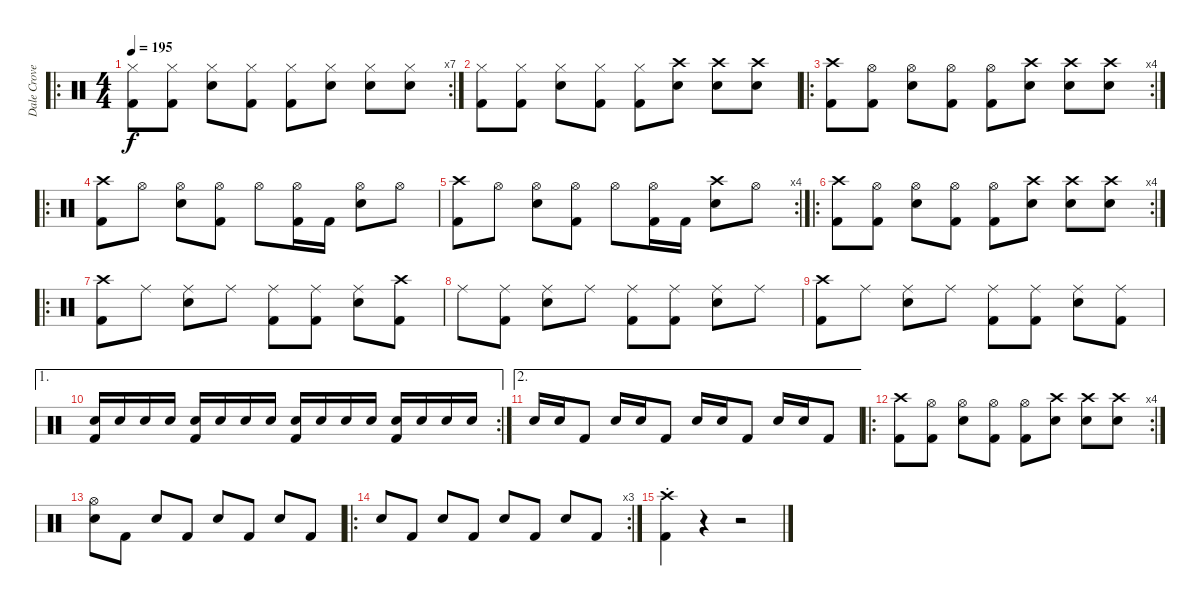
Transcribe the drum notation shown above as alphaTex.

\track ("Dale Crover" "Dale Crove") {instrument percussion}
\staff {score}
\articulation defaults
\ro
\rc 7
\ts (4 4)
\tempo 195
\clef neutral
\ks c
("Hi-Hat (closed)" "Kick (hit) 2").8{dy f} ("Hi-Hat (closed)" "Kick (hit) 2").8 ("Hi-Hat (closed)" "Electric Snare (hit)").8 ("Hi-Hat (closed)" "Kick (hit) 2").8 ("Hi-Hat (closed)" "Kick (hit) 2").8 ("Hi-Hat (closed)" "Electric Snare (hit)").8 ("Hi-Hat (closed)" "Electric Snare (hit)").8 ("Hi-Hat (closed)" "Electric Snare (hit)").8 |
("Hi-Hat (closed)" "Kick (hit) 2").8 ("Hi-Hat (closed)" "Kick (hit) 2").8 ("Hi-Hat (closed)" "Electric Snare (hit)").8 ("Hi-Hat (closed)" "Kick (hit) 2").8 ("Hi-Hat (closed)" "Kick (hit) 2").8 ("Crash high (hit)" "Electric Snare (hit)").8 ("Crash high (hit)" "Electric Snare (hit)").8 ("Crash high (hit)" "Electric Snare (hit)").8 |
\ro
\rc 4
("Crash high (hit)" "Kick (hit) 2").8 ("Hi-Hat (open)" "Kick (hit) 2").8 ("Hi-Hat (open)" "Electric Snare (hit)").8 ("Hi-Hat (open)" "Kick (hit) 2").8 ("Hi-Hat (open)" "Kick (hit) 2").8 ("Crash high (hit)" "Electric Snare (hit)").8 ("Crash high (hit)" "Electric Snare (hit)").8 ("Crash high (hit)" "Electric Snare (hit)").8 |
\ro
("Crash high (hit)" "Kick (hit) 2").8 "Hi-Hat (open)".8 ("Hi-Hat (open)" "Electric Snare (hit)").8 ("Hi-Hat (open)" "Kick (hit) 2").8 "Hi-Hat (open)".8 ("Hi-Hat (open)" "Kick (hit) 2").16 "Kick (hit) 2".16 ("Hi-Hat (open)" "Electric Snare (hit)").8 "Hi-Hat (open)".8 |
\rc 4
("Crash high (hit)" "Kick (hit) 2").8 "Hi-Hat (open)".8 ("Hi-Hat (open)" "Electric Snare (hit)").8 ("Hi-Hat (open)" "Kick (hit) 2").8 "Hi-Hat (open)".8 ("Hi-Hat (open)" "Kick (hit) 2").16 "Kick (hit) 2".16 ("Crash high (hit)" "Electric Snare (hit)").8 "Hi-Hat (open)".8 |
\ro
\rc 4
("Crash high (hit)" "Kick (hit) 2").8 ("Hi-Hat (open)" "Kick (hit) 2").8 ("Hi-Hat (open)" "Electric Snare (hit)").8 ("Hi-Hat (open)" "Kick (hit) 2").8 ("Hi-Hat (open)" "Kick (hit) 2").8 ("Crash high (hit)" "Electric Snare (hit)").8 ("Crash high (hit)" "Electric Snare (hit)").8 ("Crash high (hit)" "Electric Snare (hit)").8 |
\ro
("Crash high (hit)" "Kick (hit) 2").8 "Ride (middle)".8 ("Ride (middle)" "Electric Snare (hit)").8 "Ride (middle)".8 ("Ride (middle)" "Kick (hit) 2").8 ("Ride (middle)" "Kick (hit) 2").8 ("Ride (middle)" "Electric Snare (hit)").8 ("Crash high (hit)" "Kick (hit) 2").8 |
"Ride (middle)".8 ("Ride (middle)" "Kick (hit) 2").8 ("Ride (middle)" "Electric Snare (hit)").8 "Ride (middle)".8 ("Ride (middle)" "Kick (hit) 2").8 ("Ride (middle)" "Kick (hit) 2").8 ("Ride (middle)" "Electric Snare (hit)").8 "Ride (middle)".8 |
("Crash high (hit)" "Kick (hit) 2").8 "Ride (middle)".8 ("Ride (middle)" "Electric Snare (hit)").8 "Ride (middle)".8 ("Ride (middle)" "Kick (hit) 2").8 ("Ride (middle)" "Kick (hit) 2").8 ("Ride (middle)" "Electric Snare (hit)").8 ("Ride (middle)" "Kick (hit) 2").8 |
\ae 1
\rc 2
("Electric Snare (hit)" "Kick (hit) 2").16 "Electric Snare (hit)".16 "Electric Snare (hit)".16 "Electric Snare (hit)".16 ("Electric Snare (hit)" "Kick (hit) 2").16 "Electric Snare (hit)".16 "Electric Snare (hit)".16 "Electric Snare (hit)".16 ("Electric Snare (hit)" "Kick (hit) 2").16 "Electric Snare (hit)".16 "Electric Snare (hit)".16 "Electric Snare (hit)".16 ("Electric Snare (hit)" "Kick (hit) 2").16 "Electric Snare (hit)".16 "Electric Snare (hit)".16 "Electric Snare (hit)".16 |
\ae 2 "Electric Snare (hit)".16 "Electric Snare (hit)".16 "Kick (hit) 2".8 "Electric Snare (hit)".16 "Electric Snare (hit)".16 "Kick (hit) 2".8 "Electric Snare (hit)".16 "Electric Snare (hit)".16 "Kick (hit) 2".8 "Electric Snare (hit)".16 "Electric Snare (hit)".16 "Kick (hit) 2".8
|
\ro
\rc 4
("Crash high (hit)" "Kick (hit) 2").8 ("Hi-Hat (open)" "Kick (hit) 2").8 ("Hi-Hat (open)" "Electric Snare (hit)").8 ("Hi-Hat (open)" "Kick (hit) 2").8 ("Hi-Hat (open)" "Kick (hit) 2").8 ("Crash high (hit)" "Electric Snare (hit)").8 ("Crash high (hit)" "Electric Snare (hit)").8 ("Crash high (hit)" "Electric Snare (hit)").8 |
("Hi-Hat (open)" "Electric Snare (hit)").8 "Kick (hit) 2".8 "Electric Snare (hit)".8 "Kick (hit) 2".8 "Electric Snare (hit)".8 "Kick (hit) 2".8 "Electric Snare (hit)".8 "Kick (hit) 2".8 |
\ro
\rc 3 "Electric Snare (hit)".8 "Kick (hit) 2".8 "Electric Snare (hit)".8 "Kick (hit) 2".8 "Electric Snare (hit)".8 "Kick (hit) 2".8 "Electric Snare (hit)".8 "Kick (hit) 2".8
|
("Crash high (hit)"{st} "Kick (hit) 2").4 r.4 r.2
